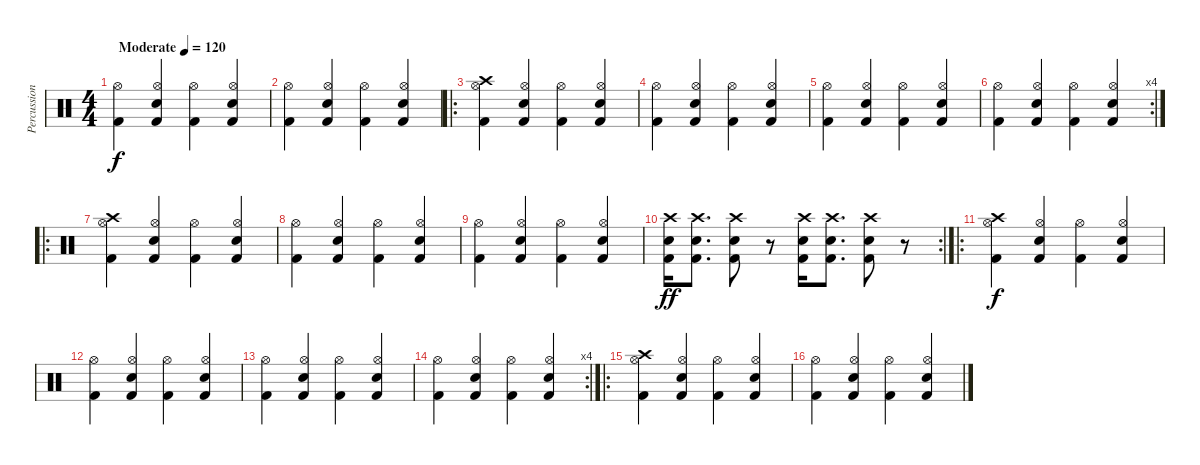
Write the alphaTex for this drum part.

\track ("Percussion" "Percussion") {instrument percussion}
\staff {score}
\articulation defaults
\ts (4 4)
\tempo (120 "Moderate")
\clef neutral
\ks c
("Kick (hit) 2" "Hi-Hat (open)").4{dy f volume 0} ("Kick (hit) 2" "Snare (hit) 2" "Hi-Hat (open)").4{volume 14} ("Kick (hit) 2" "Hi-Hat (open)").4 ("Kick (hit) 2" "Snare (hit) 2" "Hi-Hat (open)").4 |
("Kick (hit) 2" "Hi-Hat (open)").4 ("Kick (hit) 2" "Snare (hit) 2" "Hi-Hat (open)").4 ("Kick (hit) 2" "Hi-Hat (open)").4 ("Kick (hit) 2" "Snare (hit) 2" "Hi-Hat (open)").4 |
\ro
("Kick (hit) 2" "Hi-Hat (open)" "Crash high (hit)").4 ("Kick (hit) 2" "Snare (hit) 2" "Hi-Hat (open)").4 ("Kick (hit) 2" "Hi-Hat (open)").4 ("Kick (hit) 2" "Snare (hit) 2" "Hi-Hat (open)").4 |
("Kick (hit) 2" "Hi-Hat (open)").4 ("Kick (hit) 2" "Snare (hit) 2" "Hi-Hat (open)").4 ("Kick (hit) 2" "Hi-Hat (open)").4 ("Kick (hit) 2" "Snare (hit) 2" "Hi-Hat (open)").4 |
("Kick (hit) 2" "Hi-Hat (open)").4 ("Kick (hit) 2" "Snare (hit) 2" "Hi-Hat (open)").4 ("Kick (hit) 2" "Hi-Hat (open)").4 ("Kick (hit) 2" "Snare (hit) 2" "Hi-Hat (open)").4 |
\rc 4
("Kick (hit) 2" "Hi-Hat (open)").4 ("Kick (hit) 2" "Snare (hit) 2" "Hi-Hat (open)").4 ("Kick (hit) 2" "Hi-Hat (open)").4 ("Kick (hit) 2" "Snare (hit) 2" "Hi-Hat (open)").4 |
\ro
("Kick (hit) 2" "Hi-Hat (open)" "Crash high (hit)").4 ("Kick (hit) 2" "Snare (hit) 2" "Hi-Hat (open)").4 ("Kick (hit) 2" "Hi-Hat (open)").4 ("Kick (hit) 2" "Snare (hit) 2" "Hi-Hat (open)").4 |
("Kick (hit) 2" "Hi-Hat (open)").4 ("Kick (hit) 2" "Snare (hit) 2" "Hi-Hat (open)").4 ("Kick (hit) 2" "Hi-Hat (open)").4 ("Kick (hit) 2" "Snare (hit) 2" "Hi-Hat (open)").4 |
("Kick (hit) 2" "Hi-Hat (open)").4 ("Kick (hit) 2" "Snare (hit) 2" "Hi-Hat (open)").4 ("Kick (hit) 2" "Hi-Hat (open)").4 ("Kick (hit) 2" "Snare (hit) 2" "Hi-Hat (open)").4 |
\rc 2
("Kick (hit) 2" "Snare (hit) 2" "Crash high (hit)").16{dy ff} ("Kick (hit) 2" "Snare (hit) 2" "Crash high (hit)").8{d} ("Kick (hit) 2" "Snare (hit) 2" "Crash high (hit)").8 r.8 ("Kick (hit) 2" "Snare (hit) 2" "Crash high (hit)").16 ("Kick (hit) 2" "Snare (hit) 2" "Crash high (hit)").8{d} ("Kick (hit) 2" "Snare (hit) 2" "Crash high (hit)").8 r.8 |
\ro
("Kick (hit) 2" "Hi-Hat (open)" "Crash high (hit)").4{dy f} ("Kick (hit) 2" "Snare (hit) 2" "Hi-Hat (open)").4 ("Kick (hit) 2" "Hi-Hat (open)").4 ("Kick (hit) 2" "Snare (hit) 2" "Hi-Hat (open)").4 |
("Kick (hit) 2" "Hi-Hat (open)").4 ("Kick (hit) 2" "Snare (hit) 2" "Hi-Hat (open)").4 ("Kick (hit) 2" "Hi-Hat (open)").4 ("Kick (hit) 2" "Snare (hit) 2" "Hi-Hat (open)").4 |
("Kick (hit) 2" "Hi-Hat (open)").4 ("Kick (hit) 2" "Snare (hit) 2" "Hi-Hat (open)").4 ("Kick (hit) 2" "Hi-Hat (open)").4 ("Kick (hit) 2" "Snare (hit) 2" "Hi-Hat (open)").4 |
\rc 4
("Kick (hit) 2" "Hi-Hat (open)").4 ("Kick (hit) 2" "Snare (hit) 2" "Hi-Hat (open)").4 ("Kick (hit) 2" "Hi-Hat (open)").4 ("Kick (hit) 2" "Snare (hit) 2" "Hi-Hat (open)").4 |
\ro
("Kick (hit) 2" "Hi-Hat (open)" "Crash high (hit)").4 ("Kick (hit) 2" "Snare (hit) 2" "Hi-Hat (open)").4 ("Kick (hit) 2" "Hi-Hat (open)").4 ("Kick (hit) 2" "Snare (hit) 2" "Hi-Hat (open)").4 |
("Kick (hit) 2" "Hi-Hat (open)").4 ("Kick (hit) 2" "Snare (hit) 2" "Hi-Hat (open)").4 ("Kick (hit) 2" "Hi-Hat (open)").4 ("Kick (hit) 2" "Snare (hit) 2" "Hi-Hat (open)").4
